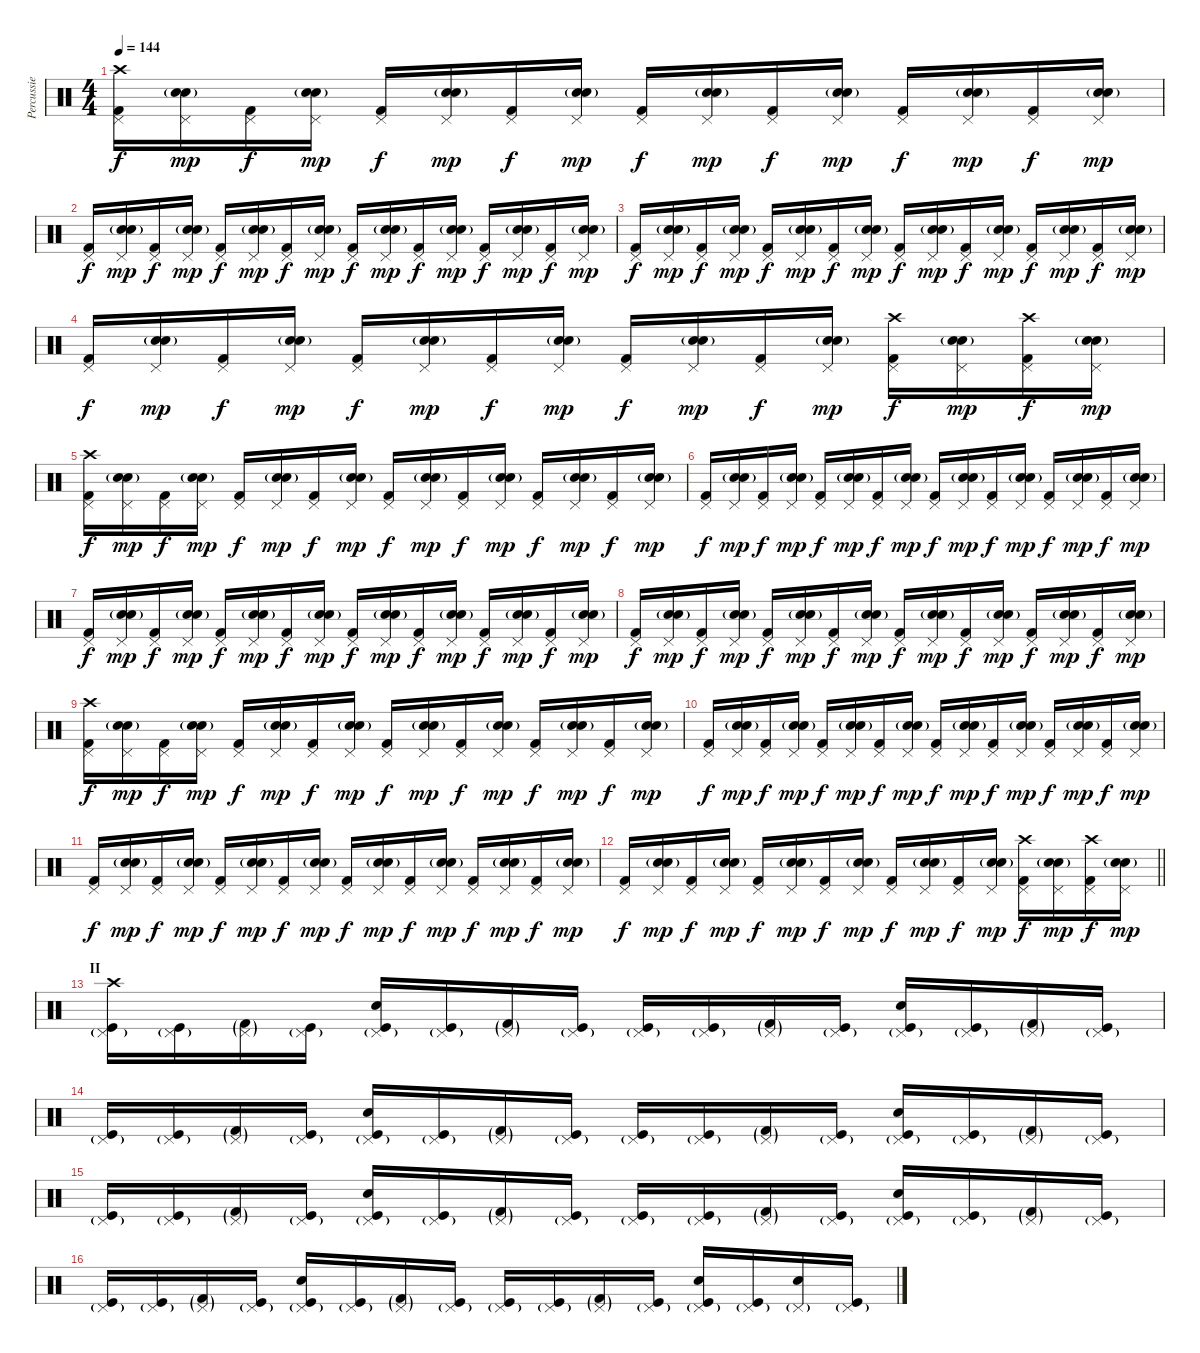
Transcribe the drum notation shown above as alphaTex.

\track ("Percussie" "Percussie") {instrument percussion}
\staff {score}
\articulation defaults
\ts (4 4)
\tempo 144
\clef neutral
\ks c
("Crash high (hit)" "Kick (hit) 2" "Pedal Hi-Hat (hit)").16{dy f} ("Electric Snare (hit)" "Snare (hit) 2"{g} "Pedal Hi-Hat (hit)").16{dy mp} ("Kick (hit) 2" "Pedal Hi-Hat (hit)").16{dy f} ("Electric Snare (hit)" "Snare (hit) 2"{g} "Pedal Hi-Hat (hit)").16{dy mp} ("Kick (hit) 2" "Pedal Hi-Hat (hit)").16{dy f} ("Electric Snare (hit)" "Snare (hit) 2"{g} "Pedal Hi-Hat (hit)").16{dy mp} ("Kick (hit) 2" "Pedal Hi-Hat (hit)").16{dy f} ("Electric Snare (hit)" "Snare (hit) 2"{g} "Pedal Hi-Hat (hit)").16{dy mp} ("Kick (hit) 2" "Pedal Hi-Hat (hit)").16{dy f} ("Electric Snare (hit)" "Snare (hit) 2"{g} "Pedal Hi-Hat (hit)").16{dy mp} ("Kick (hit) 2" "Pedal Hi-Hat (hit)").16{dy f} ("Electric Snare (hit)" "Snare (hit) 2"{g} "Pedal Hi-Hat (hit)").16{dy mp} ("Kick (hit) 2" "Pedal Hi-Hat (hit)").16{dy f} ("Electric Snare (hit)" "Snare (hit) 2"{g} "Pedal Hi-Hat (hit)").16{dy mp} ("Kick (hit) 2" "Pedal Hi-Hat (hit)").16{dy f} ("Electric Snare (hit)" "Snare (hit) 2"{g} "Pedal Hi-Hat (hit)").16{dy mp} |
("Kick (hit) 2" "Pedal Hi-Hat (hit)").16{dy f} ("Electric Snare (hit)" "Snare (hit) 2"{g} "Pedal Hi-Hat (hit)").16{dy mp} ("Kick (hit) 2" "Pedal Hi-Hat (hit)").16{dy f} ("Electric Snare (hit)" "Snare (hit) 2"{g} "Pedal Hi-Hat (hit)").16{dy mp} ("Kick (hit) 2" "Pedal Hi-Hat (hit)").16{dy f} ("Electric Snare (hit)" "Snare (hit) 2"{g} "Pedal Hi-Hat (hit)").16{dy mp} ("Kick (hit) 2" "Pedal Hi-Hat (hit)").16{dy f} ("Electric Snare (hit)" "Snare (hit) 2"{g} "Pedal Hi-Hat (hit)").16{dy mp} ("Kick (hit) 2" "Pedal Hi-Hat (hit)").16{dy f} ("Electric Snare (hit)" "Snare (hit) 2"{g} "Pedal Hi-Hat (hit)").16{dy mp} ("Kick (hit) 2" "Pedal Hi-Hat (hit)").16{dy f} ("Electric Snare (hit)" "Snare (hit) 2"{g} "Pedal Hi-Hat (hit)").16{dy mp} ("Kick (hit) 2" "Pedal Hi-Hat (hit)").16{dy f} ("Electric Snare (hit)" "Snare (hit) 2"{g} "Pedal Hi-Hat (hit)").16{dy mp} ("Kick (hit) 2" "Pedal Hi-Hat (hit)").16{dy f} ("Electric Snare (hit)" "Snare (hit) 2"{g} "Pedal Hi-Hat (hit)").16{dy mp} |
("Kick (hit) 2" "Pedal Hi-Hat (hit)").16{dy f} ("Electric Snare (hit)" "Snare (hit) 2"{g} "Pedal Hi-Hat (hit)").16{dy mp} ("Kick (hit) 2" "Pedal Hi-Hat (hit)").16{dy f} ("Electric Snare (hit)" "Snare (hit) 2"{g} "Pedal Hi-Hat (hit)").16{dy mp} ("Kick (hit) 2" "Pedal Hi-Hat (hit)").16{dy f} ("Electric Snare (hit)" "Snare (hit) 2"{g} "Pedal Hi-Hat (hit)").16{dy mp} ("Kick (hit) 2" "Pedal Hi-Hat (hit)").16{dy f} ("Electric Snare (hit)" "Snare (hit) 2"{g} "Pedal Hi-Hat (hit)").16{dy mp} ("Kick (hit) 2" "Pedal Hi-Hat (hit)").16{dy f} ("Electric Snare (hit)" "Snare (hit) 2"{g} "Pedal Hi-Hat (hit)").16{dy mp} ("Kick (hit) 2" "Pedal Hi-Hat (hit)").16{dy f} ("Electric Snare (hit)" "Snare (hit) 2"{g} "Pedal Hi-Hat (hit)").16{dy mp} ("Kick (hit) 2" "Pedal Hi-Hat (hit)").16{dy f} ("Electric Snare (hit)" "Snare (hit) 2"{g} "Pedal Hi-Hat (hit)").16{dy mp} ("Kick (hit) 2" "Pedal Hi-Hat (hit)").16{dy f} ("Electric Snare (hit)" "Snare (hit) 2"{g} "Pedal Hi-Hat (hit)").16{dy mp} |
("Kick (hit) 2" "Pedal Hi-Hat (hit)").16{dy f} ("Electric Snare (hit)" "Snare (hit) 2"{g} "Pedal Hi-Hat (hit)").16{dy mp} ("Kick (hit) 2" "Pedal Hi-Hat (hit)").16{dy f} ("Electric Snare (hit)" "Snare (hit) 2"{g} "Pedal Hi-Hat (hit)").16{dy mp} ("Kick (hit) 2" "Pedal Hi-Hat (hit)").16{dy f} ("Electric Snare (hit)" "Snare (hit) 2"{g} "Pedal Hi-Hat (hit)").16{dy mp} ("Kick (hit) 2" "Pedal Hi-Hat (hit)").16{dy f} ("Electric Snare (hit)" "Snare (hit) 2"{g} "Pedal Hi-Hat (hit)").16{dy mp} ("Kick (hit) 2" "Pedal Hi-Hat (hit)").16{dy f} ("Electric Snare (hit)" "Snare (hit) 2"{g} "Pedal Hi-Hat (hit)").16{dy mp} ("Kick (hit) 2" "Pedal Hi-Hat (hit)").16{dy f} ("Electric Snare (hit)" "Snare (hit) 2"{g} "Pedal Hi-Hat (hit)").16{dy mp} ("Crash high (hit)" "Kick (hit) 2" "Pedal Hi-Hat (hit)").16{dy f} ("Electric Snare (hit)" "Snare (hit) 2"{g} "Pedal Hi-Hat (hit)").16{dy mp} ("Crash high (hit)" "Kick (hit) 2" "Pedal Hi-Hat (hit)").16{dy f} ("Electric Snare (hit)" "Snare (hit) 2"{g} "Pedal Hi-Hat (hit)").16{dy mp} |
("Crash high (hit)" "Kick (hit) 2" "Pedal Hi-Hat (hit)").16{dy f} ("Electric Snare (hit)" "Snare (hit) 2"{g} "Pedal Hi-Hat (hit)").16{dy mp} ("Kick (hit) 2" "Pedal Hi-Hat (hit)").16{dy f} ("Electric Snare (hit)" "Snare (hit) 2"{g} "Pedal Hi-Hat (hit)").16{dy mp} ("Kick (hit) 2" "Pedal Hi-Hat (hit)").16{dy f} ("Electric Snare (hit)" "Snare (hit) 2"{g} "Pedal Hi-Hat (hit)").16{dy mp} ("Kick (hit) 2" "Pedal Hi-Hat (hit)").16{dy f} ("Electric Snare (hit)" "Snare (hit) 2"{g} "Pedal Hi-Hat (hit)").16{dy mp} ("Kick (hit) 2" "Pedal Hi-Hat (hit)").16{dy f} ("Electric Snare (hit)" "Snare (hit) 2"{g} "Pedal Hi-Hat (hit)").16{dy mp} ("Kick (hit) 2" "Pedal Hi-Hat (hit)").16{dy f} ("Electric Snare (hit)" "Snare (hit) 2"{g} "Pedal Hi-Hat (hit)").16{dy mp} ("Kick (hit) 2" "Pedal Hi-Hat (hit)").16{dy f} ("Electric Snare (hit)" "Snare (hit) 2"{g} "Pedal Hi-Hat (hit)").16{dy mp} ("Kick (hit) 2" "Pedal Hi-Hat (hit)").16{dy f} ("Electric Snare (hit)" "Snare (hit) 2"{g} "Pedal Hi-Hat (hit)").16{dy mp} |
("Kick (hit) 2" "Pedal Hi-Hat (hit)").16{dy f} ("Electric Snare (hit)" "Snare (hit) 2"{g} "Pedal Hi-Hat (hit)").16{dy mp} ("Kick (hit) 2" "Pedal Hi-Hat (hit)").16{dy f} ("Electric Snare (hit)" "Snare (hit) 2"{g} "Pedal Hi-Hat (hit)").16{dy mp} ("Kick (hit) 2" "Pedal Hi-Hat (hit)").16{dy f} ("Electric Snare (hit)" "Snare (hit) 2"{g} "Pedal Hi-Hat (hit)").16{dy mp} ("Kick (hit) 2" "Pedal Hi-Hat (hit)").16{dy f} ("Electric Snare (hit)" "Snare (hit) 2"{g} "Pedal Hi-Hat (hit)").16{dy mp} ("Kick (hit) 2" "Pedal Hi-Hat (hit)").16{dy f} ("Electric Snare (hit)" "Snare (hit) 2"{g} "Pedal Hi-Hat (hit)").16{dy mp} ("Kick (hit) 2" "Pedal Hi-Hat (hit)").16{dy f} ("Electric Snare (hit)" "Snare (hit) 2"{g} "Pedal Hi-Hat (hit)").16{dy mp} ("Kick (hit) 2" "Pedal Hi-Hat (hit)").16{dy f} ("Electric Snare (hit)" "Snare (hit) 2"{g} "Pedal Hi-Hat (hit)").16{dy mp} ("Kick (hit) 2" "Pedal Hi-Hat (hit)").16{dy f} ("Electric Snare (hit)" "Snare (hit) 2"{g} "Pedal Hi-Hat (hit)").16{dy mp} |
("Kick (hit) 2" "Pedal Hi-Hat (hit)").16{dy f} ("Electric Snare (hit)" "Snare (hit) 2"{g} "Pedal Hi-Hat (hit)").16{dy mp} ("Kick (hit) 2" "Pedal Hi-Hat (hit)").16{dy f} ("Electric Snare (hit)" "Snare (hit) 2"{g} "Pedal Hi-Hat (hit)").16{dy mp} ("Kick (hit) 2" "Pedal Hi-Hat (hit)").16{dy f} ("Electric Snare (hit)" "Snare (hit) 2"{g} "Pedal Hi-Hat (hit)").16{dy mp} ("Kick (hit) 2" "Pedal Hi-Hat (hit)").16{dy f} ("Electric Snare (hit)" "Snare (hit) 2"{g} "Pedal Hi-Hat (hit)").16{dy mp} ("Kick (hit) 2" "Pedal Hi-Hat (hit)").16{dy f} ("Electric Snare (hit)" "Snare (hit) 2"{g} "Pedal Hi-Hat (hit)").16{dy mp} ("Kick (hit) 2" "Pedal Hi-Hat (hit)").16{dy f} ("Electric Snare (hit)" "Snare (hit) 2"{g} "Pedal Hi-Hat (hit)").16{dy mp} ("Kick (hit) 2" "Pedal Hi-Hat (hit)").16{dy f} ("Electric Snare (hit)" "Snare (hit) 2"{g} "Pedal Hi-Hat (hit)").16{dy mp} ("Kick (hit) 2" "Pedal Hi-Hat (hit)").16{dy f} ("Electric Snare (hit)" "Snare (hit) 2"{g} "Pedal Hi-Hat (hit)").16{dy mp} |
("Kick (hit) 2" "Pedal Hi-Hat (hit)").16{dy f} ("Electric Snare (hit)" "Snare (hit) 2"{g} "Pedal Hi-Hat (hit)").16{dy mp} ("Kick (hit) 2" "Pedal Hi-Hat (hit)").16{dy f} ("Electric Snare (hit)" "Snare (hit) 2"{g} "Pedal Hi-Hat (hit)").16{dy mp} ("Kick (hit) 2" "Pedal Hi-Hat (hit)").16{dy f} ("Electric Snare (hit)" "Snare (hit) 2"{g} "Pedal Hi-Hat (hit)").16{dy mp} ("Kick (hit) 2" "Pedal Hi-Hat (hit)").16{dy f} ("Electric Snare (hit)" "Snare (hit) 2"{g} "Pedal Hi-Hat (hit)").16{dy mp} ("Kick (hit) 2" "Pedal Hi-Hat (hit)").16{dy f} ("Electric Snare (hit)" "Snare (hit) 2"{g} "Pedal Hi-Hat (hit)").16{dy mp} ("Kick (hit) 2" "Pedal Hi-Hat (hit)").16{dy f} ("Electric Snare (hit)" "Snare (hit) 2"{g} "Pedal Hi-Hat (hit)").16{dy mp} ("Kick (hit) 2" "Pedal Hi-Hat (hit)").16{dy f} ("Electric Snare (hit)" "Snare (hit) 2"{g} "Pedal Hi-Hat (hit)").16{dy mp} ("Kick (hit) 2" "Pedal Hi-Hat (hit)").16{dy f} ("Electric Snare (hit)" "Snare (hit) 2"{g} "Pedal Hi-Hat (hit)").16{dy mp} |
("Crash high (hit)" "Kick (hit) 2" "Pedal Hi-Hat (hit)").16{dy f} ("Electric Snare (hit)" "Snare (hit) 2"{g} "Pedal Hi-Hat (hit)").16{dy mp} ("Kick (hit) 2" "Pedal Hi-Hat (hit)").16{dy f} ("Electric Snare (hit)" "Snare (hit) 2"{g} "Pedal Hi-Hat (hit)").16{dy mp} ("Kick (hit) 2" "Pedal Hi-Hat (hit)").16{dy f} ("Electric Snare (hit)" "Snare (hit) 2"{g} "Pedal Hi-Hat (hit)").16{dy mp} ("Kick (hit) 2" "Pedal Hi-Hat (hit)").16{dy f} ("Electric Snare (hit)" "Snare (hit) 2"{g} "Pedal Hi-Hat (hit)").16{dy mp} ("Kick (hit) 2" "Pedal Hi-Hat (hit)").16{dy f} ("Electric Snare (hit)" "Snare (hit) 2"{g} "Pedal Hi-Hat (hit)").16{dy mp} ("Kick (hit) 2" "Pedal Hi-Hat (hit)").16{dy f} ("Electric Snare (hit)" "Snare (hit) 2"{g} "Pedal Hi-Hat (hit)").16{dy mp} ("Kick (hit) 2" "Pedal Hi-Hat (hit)").16{dy f} ("Electric Snare (hit)" "Snare (hit) 2"{g} "Pedal Hi-Hat (hit)").16{dy mp} ("Kick (hit) 2" "Pedal Hi-Hat (hit)").16{dy f} ("Electric Snare (hit)" "Snare (hit) 2"{g} "Pedal Hi-Hat (hit)").16{dy mp} |
("Kick (hit) 2" "Pedal Hi-Hat (hit)").16{dy f} ("Electric Snare (hit)" "Snare (hit) 2"{g} "Pedal Hi-Hat (hit)").16{dy mp} ("Kick (hit) 2" "Pedal Hi-Hat (hit)").16{dy f} ("Electric Snare (hit)" "Snare (hit) 2"{g} "Pedal Hi-Hat (hit)").16{dy mp} ("Kick (hit) 2" "Pedal Hi-Hat (hit)").16{dy f} ("Electric Snare (hit)" "Snare (hit) 2"{g} "Pedal Hi-Hat (hit)").16{dy mp} ("Kick (hit) 2" "Pedal Hi-Hat (hit)").16{dy f} ("Electric Snare (hit)" "Snare (hit) 2"{g} "Pedal Hi-Hat (hit)").16{dy mp} ("Kick (hit) 2" "Pedal Hi-Hat (hit)").16{dy f} ("Electric Snare (hit)" "Snare (hit) 2"{g} "Pedal Hi-Hat (hit)").16{dy mp} ("Kick (hit) 2" "Pedal Hi-Hat (hit)").16{dy f} ("Electric Snare (hit)" "Snare (hit) 2"{g} "Pedal Hi-Hat (hit)").16{dy mp} ("Kick (hit) 2" "Pedal Hi-Hat (hit)").16{dy f} ("Electric Snare (hit)" "Snare (hit) 2"{g} "Pedal Hi-Hat (hit)").16{dy mp} ("Kick (hit) 2" "Pedal Hi-Hat (hit)").16{dy f} ("Electric Snare (hit)" "Snare (hit) 2"{g} "Pedal Hi-Hat (hit)").16{dy mp} |
("Kick (hit) 2" "Pedal Hi-Hat (hit)").16{dy f} ("Electric Snare (hit)" "Snare (hit) 2"{g} "Pedal Hi-Hat (hit)").16{dy mp} ("Kick (hit) 2" "Pedal Hi-Hat (hit)").16{dy f} ("Electric Snare (hit)" "Snare (hit) 2"{g} "Pedal Hi-Hat (hit)").16{dy mp} ("Kick (hit) 2" "Pedal Hi-Hat (hit)").16{dy f} ("Electric Snare (hit)" "Snare (hit) 2"{g} "Pedal Hi-Hat (hit)").16{dy mp} ("Kick (hit) 2" "Pedal Hi-Hat (hit)").16{dy f} ("Electric Snare (hit)" "Snare (hit) 2"{g} "Pedal Hi-Hat (hit)").16{dy mp} ("Kick (hit) 2" "Pedal Hi-Hat (hit)").16{dy f} ("Electric Snare (hit)" "Snare (hit) 2"{g} "Pedal Hi-Hat (hit)").16{dy mp} ("Kick (hit) 2" "Pedal Hi-Hat (hit)").16{dy f} ("Electric Snare (hit)" "Snare (hit) 2"{g} "Pedal Hi-Hat (hit)").16{dy mp} ("Kick (hit) 2" "Pedal Hi-Hat (hit)").16{dy f} ("Electric Snare (hit)" "Snare (hit) 2"{g} "Pedal Hi-Hat (hit)").16{dy mp} ("Kick (hit) 2" "Pedal Hi-Hat (hit)").16{dy f} ("Electric Snare (hit)" "Snare (hit) 2"{g} "Pedal Hi-Hat (hit)").16{dy mp} |
\barLineRight lightlight
("Kick (hit) 2" "Pedal Hi-Hat (hit)").16{dy f} ("Electric Snare (hit)" "Snare (hit) 2"{g} "Pedal Hi-Hat (hit)").16{dy mp} ("Kick (hit) 2" "Pedal Hi-Hat (hit)").16{dy f} ("Electric Snare (hit)" "Snare (hit) 2"{g} "Pedal Hi-Hat (hit)").16{dy mp} ("Kick (hit) 2" "Pedal Hi-Hat (hit)").16{dy f} ("Electric Snare (hit)" "Snare (hit) 2"{g} "Pedal Hi-Hat (hit)").16{dy mp} ("Kick (hit) 2" "Pedal Hi-Hat (hit)").16{dy f} ("Electric Snare (hit)" "Snare (hit) 2"{g} "Pedal Hi-Hat (hit)").16{dy mp} ("Kick (hit) 2" "Pedal Hi-Hat (hit)").16{dy f} ("Electric Snare (hit)" "Snare (hit) 2"{g} "Pedal Hi-Hat (hit)").16{dy mp} ("Kick (hit) 2" "Pedal Hi-Hat (hit)").16{dy f} ("Electric Snare (hit)" "Snare (hit) 2"{g} "Pedal Hi-Hat (hit)").16{dy mp} ("Crash high (hit)" "Kick (hit) 2" "Pedal Hi-Hat (hit)").16{dy f} ("Electric Snare (hit)" "Snare (hit) 2"{g} "Pedal Hi-Hat (hit)").16{dy mp} ("Crash high (hit)" "Kick (hit) 2" "Pedal Hi-Hat (hit)").16{dy f} ("Electric Snare (hit)" "Snare (hit) 2"{g} "Pedal Hi-Hat (hit)").16{dy mp} |
\section ("" "II")
("Crash high (hit)" "Kick (hit)" "Pedal Hi-Hat (hit)"{g}).16 ("Kick (hit)" "Pedal Hi-Hat (hit)"{g}).16 ("Kick (hit) 2"{g} "Pedal Hi-Hat (hit)"{g}).16 ("Kick (hit)" "Pedal Hi-Hat (hit)"{g}).16 ("Snare (hit) 2" "Kick (hit)" "Pedal Hi-Hat (hit)"{g}).16 ("Kick (hit)" "Pedal Hi-Hat (hit)"{g}).16 ("Kick (hit) 2"{g} "Pedal Hi-Hat (hit)"{g}).16 ("Kick (hit)" "Pedal Hi-Hat (hit)"{g}).16 ("Kick (hit)" "Pedal Hi-Hat (hit)"{g}).16 ("Kick (hit)" "Pedal Hi-Hat (hit)"{g}).16 ("Kick (hit) 2"{g} "Pedal Hi-Hat (hit)"{g}).16 ("Kick (hit)" "Pedal Hi-Hat (hit)"{g}).16 ("Snare (hit) 2" "Kick (hit)" "Pedal Hi-Hat (hit)"{g}).16 ("Kick (hit)" "Pedal Hi-Hat (hit)"{g}).16 ("Kick (hit) 2"{g} "Pedal Hi-Hat (hit)"{g}).16 ("Kick (hit)" "Pedal Hi-Hat (hit)"{g}).16 |
("Kick (hit)" "Pedal Hi-Hat (hit)"{g}).16 ("Kick (hit)" "Pedal Hi-Hat (hit)"{g}).16 ("Kick (hit) 2"{g} "Pedal Hi-Hat (hit)"{g}).16 ("Kick (hit)" "Pedal Hi-Hat (hit)"{g}).16 ("Snare (hit) 2" "Kick (hit)" "Pedal Hi-Hat (hit)"{g}).16 ("Kick (hit)" "Pedal Hi-Hat (hit)"{g}).16 ("Kick (hit) 2"{g} "Pedal Hi-Hat (hit)"{g}).16 ("Kick (hit)" "Pedal Hi-Hat (hit)"{g}).16 ("Kick (hit)" "Pedal Hi-Hat (hit)"{g}).16 ("Kick (hit)" "Pedal Hi-Hat (hit)"{g}).16 ("Kick (hit) 2"{g} "Pedal Hi-Hat (hit)"{g}).16 ("Kick (hit)" "Pedal Hi-Hat (hit)"{g}).16 ("Snare (hit) 2" "Kick (hit)" "Pedal Hi-Hat (hit)"{g}).16 ("Kick (hit)" "Pedal Hi-Hat (hit)"{g}).16 ("Kick (hit) 2"{g} "Pedal Hi-Hat (hit)"{g}).16 ("Kick (hit)" "Pedal Hi-Hat (hit)"{g}).16 |
("Kick (hit)" "Pedal Hi-Hat (hit)"{g}).16 ("Kick (hit)" "Pedal Hi-Hat (hit)"{g}).16 ("Kick (hit) 2"{g} "Pedal Hi-Hat (hit)"{g}).16 ("Kick (hit)" "Pedal Hi-Hat (hit)"{g}).16 ("Snare (hit) 2" "Kick (hit)" "Pedal Hi-Hat (hit)"{g}).16 ("Kick (hit)" "Pedal Hi-Hat (hit)"{g}).16 ("Kick (hit) 2"{g} "Pedal Hi-Hat (hit)"{g}).16 ("Kick (hit)" "Pedal Hi-Hat (hit)"{g}).16 ("Kick (hit)" "Pedal Hi-Hat (hit)"{g}).16 ("Kick (hit)" "Pedal Hi-Hat (hit)"{g}).16 ("Kick (hit) 2"{g} "Pedal Hi-Hat (hit)"{g}).16 ("Kick (hit)" "Pedal Hi-Hat (hit)"{g}).16 ("Snare (hit) 2" "Kick (hit)" "Pedal Hi-Hat (hit)"{g}).16 ("Kick (hit)" "Pedal Hi-Hat (hit)"{g}).16 ("Kick (hit) 2"{g} "Pedal Hi-Hat (hit)"{g}).16 ("Kick (hit)" "Pedal Hi-Hat (hit)"{g}).16 |
("Kick (hit)" "Pedal Hi-Hat (hit)"{g}).16 ("Kick (hit)" "Pedal Hi-Hat (hit)"{g}).16 ("Kick (hit) 2"{g} "Pedal Hi-Hat (hit)"{g}).16 ("Kick (hit)" "Pedal Hi-Hat (hit)"{g}).16 ("Snare (hit) 2" "Kick (hit)" "Pedal Hi-Hat (hit)"{g}).16 ("Kick (hit)" "Pedal Hi-Hat (hit)"{g}).16 ("Kick (hit) 2"{g} "Pedal Hi-Hat (hit)"{g}).16 ("Kick (hit)" "Pedal Hi-Hat (hit)"{g}).16 ("Kick (hit)" "Pedal Hi-Hat (hit)"{g}).16 ("Kick (hit)" "Pedal Hi-Hat (hit)"{g}).16 ("Kick (hit) 2"{g} "Pedal Hi-Hat (hit)"{g}).16 ("Kick (hit)" "Pedal Hi-Hat (hit)"{g}).16 ("Snare (hit) 2" "Kick (hit)" "Pedal Hi-Hat (hit)"{g}).16 ("Kick (hit)" "Pedal Hi-Hat (hit)"{g}).16 ("Snare (hit) 2" "Pedal Hi-Hat (hit)"{g}).16 ("Kick (hit)" "Pedal Hi-Hat (hit)"{g}).16
